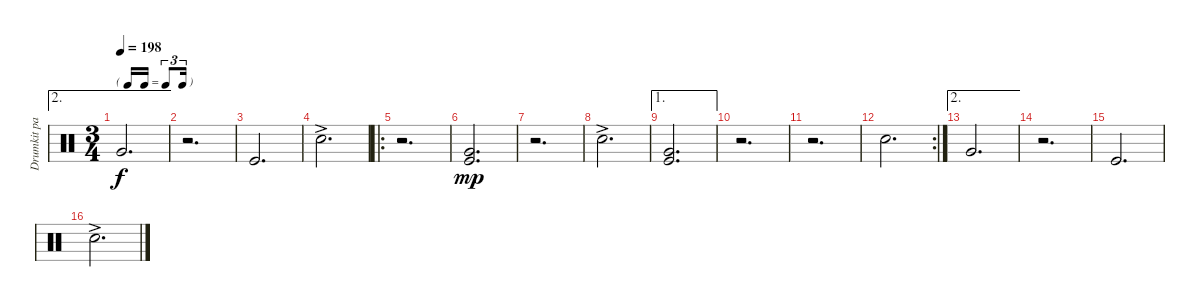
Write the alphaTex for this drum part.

\track ("Drumkit part 2" "Drumkit pa") {instrument percussion}
\staff {score}
\articulation defaults
\ae 2
\ts (3 4)
\tf triplet16th
\tempo 198
\clef neutral
\ks c "Very Low Tom (hit)".2{d dy f}
|
r.2{d} |
"Kick (hit)".2{d} |
"Snare (hit) 2"{ac}.2{d} |
\ro
r.2{d} |
("Kick (hit)" "Very Low Tom (hit)").2{d dy mp} |
r.2{d} |
"Snare (hit) 2"{ac}.2{d} |
\ae 1
("Kick (hit)" "Very Low Tom (hit)").2{d} |
r.2{d} |
r.2{d} |
\rc 2 "Snare (hit) 2".2{d}
|
\ae 2 "Very Low Tom (hit)".2{d}
|
r.2{d} |
"Kick (hit)".2{d} |
"Snare (hit) 2"{ac}.2{d}
